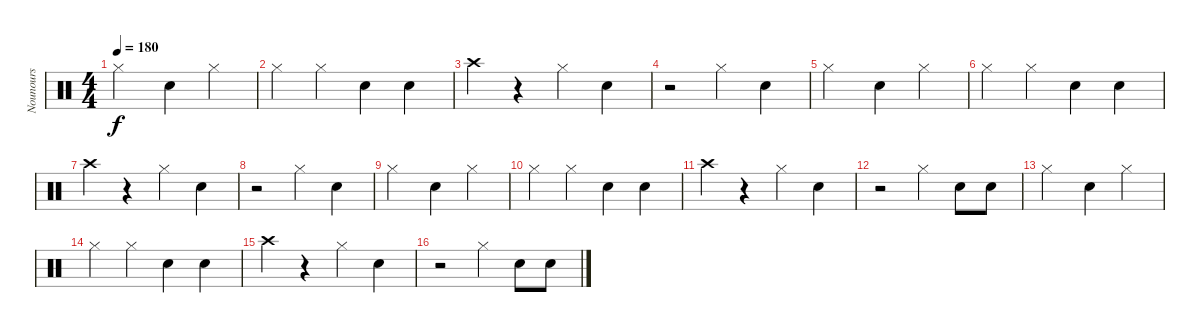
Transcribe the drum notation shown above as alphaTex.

\track ("Nounours" "Nounours") {instrument percussion}
\staff {score}
\articulation defaults
\ts (4 4)
\tempo 180
\clef neutral
\ks c "Hi-Hat (closed)".2{dy f} "Snare (hit) 2".4 "Hi-Hat (closed)".4
|
"Hi-Hat (closed)".4 "Hi-Hat (closed)".4 "Snare (hit) 2".4 "Snare (hit) 2".4 |
"Crash high (hit)".4 r.4 "Hi-Hat (closed)".4 "Snare (hit) 2".4 |
r.2 "Hi-Hat (closed)".4 "Snare (hit) 2".4 |
"Hi-Hat (closed)".2 "Snare (hit) 2".4 "Hi-Hat (closed)".4 |
"Hi-Hat (closed)".4 "Hi-Hat (closed)".4 "Snare (hit) 2".4 "Snare (hit) 2".4 |
"Crash high (hit)".4 r.4 "Hi-Hat (closed)".4 "Snare (hit) 2".4 |
r.2 "Hi-Hat (closed)".4 "Snare (hit) 2".4 |
"Hi-Hat (closed)".2 "Snare (hit) 2".4 "Hi-Hat (closed)".4 |
"Hi-Hat (closed)".4 "Hi-Hat (closed)".4 "Snare (hit) 2".4 "Snare (hit) 2".4 |
"Crash high (hit)".4 r.4 "Hi-Hat (closed)".4 "Snare (hit) 2".4 |
r.2 "Hi-Hat (closed)".4 "Snare (hit) 2".8 "Snare (hit) 2".8 |
"Hi-Hat (closed)".2 "Snare (hit) 2".4 "Hi-Hat (closed)".4 |
"Hi-Hat (closed)".4 "Hi-Hat (closed)".4 "Snare (hit) 2".4 "Snare (hit) 2".4 |
"Crash high (hit)".4 r.4 "Hi-Hat (closed)".4 "Snare (hit) 2".4 |
r.2 "Hi-Hat (closed)".4 "Snare (hit) 2".8 "Snare (hit) 2".8
